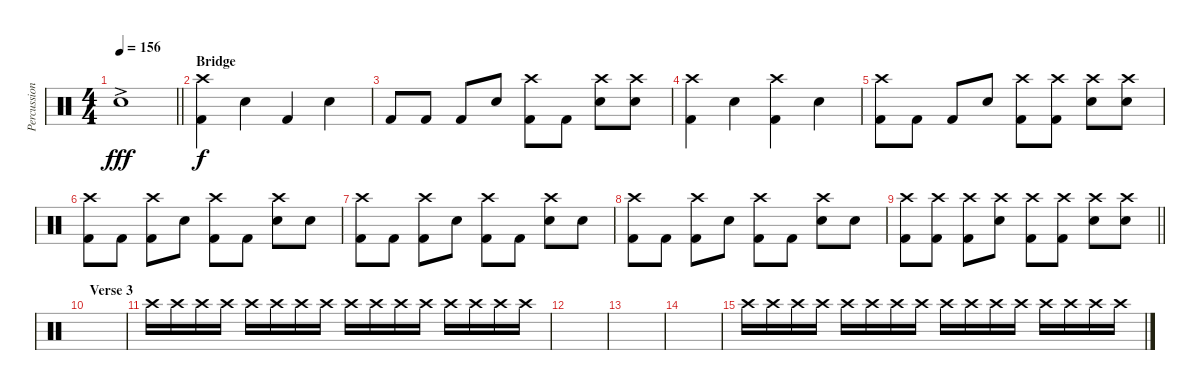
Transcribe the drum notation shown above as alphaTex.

\track ("Percussion" "Percussion") {instrument percussion}
\staff {score}
\articulation defaults
\ts (4 4)
\tempo 156
\clef neutral
\barLineRight lightlight
\ks c "Hand Clap (hit)"{ac}.1{dy fff volume 16}
|
\section ("" "Bridge")
("Crash high (hit)" "Kick (hit) 2").4{dy f volume 16} "Electric Snare (hit)".4 "Kick (hit) 2".4 "Electric Snare (hit)".4 |
"Kick (hit) 2".8 "Kick (hit) 2".8 "Kick (hit) 2".8 "Electric Snare (hit)".8 ("Crash high (hit)" "Kick (hit) 2").8 "Kick (hit) 2".8 ("Crash high (hit)" "Electric Snare (hit)").8 ("Crash high (hit)" "Electric Snare (hit)").8 |
("Crash high (hit)" "Kick (hit) 2").4{volume 16} "Electric Snare (hit)".4 ("Crash high (hit)" "Kick (hit) 2").4 "Electric Snare (hit)".4 |
("Crash high (hit)" "Kick (hit) 2").8 "Kick (hit) 2".8 "Kick (hit) 2".8 "Electric Snare (hit)".8 ("Crash high (hit)" "Kick (hit) 2").8 ("Crash high (hit)" "Kick (hit) 2").8 ("Crash high (hit)" "Electric Snare (hit)").8 ("Crash high (hit)" "Electric Snare (hit)").8 |
("Crash high (hit)" "Kick (hit) 2").8 "Kick (hit) 2".8 ("Crash high (hit)" "Kick (hit) 2").8 "Electric Snare (hit)".8 ("Crash high (hit)" "Kick (hit) 2").8 "Kick (hit) 2".8 ("Crash high (hit)" "Electric Snare (hit)").8 "Electric Snare (hit)".8 |
("Crash high (hit)" "Kick (hit) 2").8 "Kick (hit) 2".8 ("Crash high (hit)" "Kick (hit) 2").8 "Electric Snare (hit)".8 ("Crash high (hit)" "Kick (hit) 2").8 "Kick (hit) 2".8 ("Crash high (hit)" "Electric Snare (hit)").8 "Electric Snare (hit)".8 |
("Crash high (hit)" "Kick (hit) 2").8 "Kick (hit) 2".8 ("Crash high (hit)" "Kick (hit) 2").8 "Electric Snare (hit)".8 ("Crash high (hit)" "Kick (hit) 2").8 "Kick (hit) 2".8 ("Crash high (hit)" "Electric Snare (hit)").8 "Electric Snare (hit)".8 |
\barLineRight lightlight
("Crash high (hit)" "Kick (hit) 2").8 ("Crash high (hit)" "Kick (hit) 2").8 ("Crash high (hit)" "Kick (hit) 2").8 ("Crash high (hit)" "Electric Snare (hit)").8 ("Crash high (hit)" "Kick (hit) 2").8 ("Crash high (hit)" "Kick (hit) 2").8 ("Crash high (hit)" "Electric Snare (hit)").8 ("Crash high (hit)" "Electric Snare (hit)").8 |
\section ("" "Verse 3")
|
"Crash high (hit)".16{volume 6} "Crash high (hit)".16 "Crash high (hit)".16 "Crash high (hit)".16 "Crash high (hit)".16 "Crash high (hit)".16 "Crash high (hit)".16 "Crash high (hit)".16 "Crash high (hit)".16 "Crash high (hit)".16 "Crash high (hit)".16 "Crash high (hit)".16 "Crash high (hit)".16 "Crash high (hit)".16 "Crash high (hit)".16 "Crash high (hit)".16 |
|
|
|
"Crash high (hit)".16 "Crash high (hit)".16 "Crash high (hit)".16 "Crash high (hit)".16 "Crash high (hit)".16 "Crash high (hit)".16 "Crash high (hit)".16 "Crash high (hit)".16 "Crash high (hit)".16 "Crash high (hit)".16 "Crash high (hit)".16 "Crash high (hit)".16 "Crash high (hit)".16 "Crash high (hit)".16 "Crash high (hit)".16 "Crash high (hit)".16
